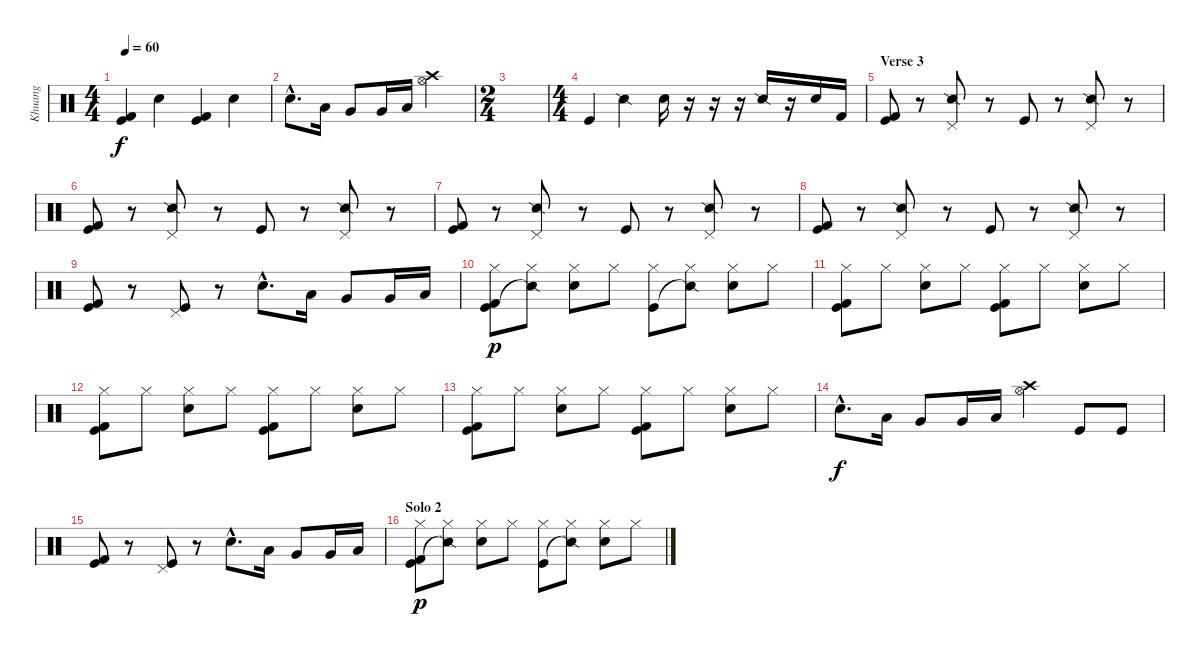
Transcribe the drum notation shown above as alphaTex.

\track ("Khuang" "Khuang") {instrument percussion}
\staff {score}
\articulation defaults
\ts (4 4)
\tempo 60
\clef neutral
\ks c
("Kick (hit)" "Kick (hit) 2").4{dy f} "Electric Snare (hit)".4 ("Kick (hit)" "Kick (hit) 2").4 "Electric Snare (hit)".4 |
"Snare (hit) 2"{hac}.8{d} "Low Tom (hit)".16 "Very Low Tom (hit)".8 "Very Low Tom (hit)".16 "Low Floor Tom (hit)".16 ("Hi-Hat (open)" "Crash high (hit)").2 |
\ts (2 4)
|
\ts (4 4)
"Kick (hit)".4 "Snare (side stick) 2".4 "Snare (hit) 2".16 r.16 r.16 r.16 "Snare (side stick) 2".16 r.16 "Snare (hit) 2".16 "Kick (hit) 2".16 |
\section ("" "Verse 3")
("Kick (hit)" "Kick (hit) 2").8 r.8 ("Snare (side stick) 2" "Pedal Hi-Hat (hit)").8 r.8 "Kick (hit)".8 r.8 ("Snare (side stick) 2" "Pedal Hi-Hat (hit)").8 r.8 |
("Kick (hit)" "Kick (hit) 2").8 r.8 ("Snare (side stick) 2" "Pedal Hi-Hat (hit)").8 r.8 "Kick (hit)".8 r.8 ("Snare (side stick) 2" "Pedal Hi-Hat (hit)").8 r.8 |
("Kick (hit)" "Kick (hit) 2").8 r.8 ("Snare (side stick) 2" "Pedal Hi-Hat (hit)").8 r.8 "Kick (hit)".8 r.8 ("Snare (side stick) 2" "Pedal Hi-Hat (hit)").8 r.8 |
("Kick (hit)" "Kick (hit) 2").8 r.8 ("Snare (side stick) 2" "Pedal Hi-Hat (hit)").8 r.8 "Kick (hit)".8 r.8 ("Snare (side stick) 2" "Pedal Hi-Hat (hit)").8 r.8 |
("Kick (hit)" "Kick (hit) 2").8 r.8 ("Kick (hit)" "Pedal Hi-Hat (hit)").8 r.8 "Snare (hit) 2"{hac}.8{d} "Low Tom (hit)".16 "Very Low Tom (hit)".8 "Very Low Tom (hit)".16 "Low Floor Tom (hit)".16 |
("Kick (hit)" "Kick (hit) 2" "Hi-Hat (closed)").8{dy p volume 12} ("Snare (side stick) 2"{t} "Hi-Hat (closed)").8 ("Electric Snare (hit)" "Hi-Hat (closed)").8 "Hi-Hat (closed)".8 ("Kick (hit)" "Hi-Hat (closed)").8 ("Snare (side stick) 2"{t} "Hi-Hat (closed)").8 ("Electric Snare (hit)" "Hi-Hat (closed)").8 "Hi-Hat (closed)".8 |
("Kick (hit) 2" "Kick (hit)" "Hi-Hat (closed)").8 "Hi-Hat (closed)".8 ("Electric Snare (hit)" "Hi-Hat (closed)").8 "Hi-Hat (closed)".8 ("Kick (hit) 2" "Kick (hit)" "Hi-Hat (closed)").8 "Hi-Hat (closed)".8 ("Electric Snare (hit)" "Hi-Hat (closed)").8 "Hi-Hat (closed)".8 |
("Kick (hit) 2" "Kick (hit)" "Hi-Hat (closed)").8 "Hi-Hat (closed)".8 ("Electric Snare (hit)" "Hi-Hat (closed)").8 "Hi-Hat (closed)".8 ("Kick (hit) 2" "Kick (hit)" "Hi-Hat (closed)").8 "Hi-Hat (closed)".8 ("Electric Snare (hit)" "Hi-Hat (closed)").8 "Hi-Hat (closed)".8 |
("Kick (hit) 2" "Kick (hit)" "Hi-Hat (closed)").8 "Hi-Hat (closed)".8 ("Electric Snare (hit)" "Hi-Hat (closed)").8 "Hi-Hat (closed)".8 ("Kick (hit) 2" "Kick (hit)" "Hi-Hat (closed)").8 "Hi-Hat (closed)".8 ("Electric Snare (hit)" "Hi-Hat (closed)").8 "Hi-Hat (closed)".8 |
"Snare (hit) 2"{hac}.8{d dy f} "Low Tom (hit)".16 "Very Low Tom (hit)".8 "Very Low Tom (hit)".16 "Low Floor Tom (hit)".16 ("Hi-Hat (open)" "Crash high (hit)").4 "Kick (hit)".8 "Kick (hit)".8 |
("Kick (hit)" "Kick (hit) 2").8 r.8 ("Kick (hit)" "Pedal Hi-Hat (hit)").8 r.8 "Snare (hit) 2"{hac}.8{d} "Low Tom (hit)".16 "Very Low Tom (hit)".8 "Very Low Tom (hit)".16 "Low Floor Tom (hit)".16 |
\section ("" "Solo 2")
("Kick (hit)" "Kick (hit) 2" "Hi-Hat (closed)").8{dy p volume 12} ("Snare (side stick) 2"{t} "Hi-Hat (closed)").8 ("Electric Snare (hit)" "Hi-Hat (closed)").8 "Hi-Hat (closed)".8 ("Kick (hit)" "Hi-Hat (closed)").8 ("Snare (side stick) 2"{t} "Hi-Hat (closed)").8 ("Electric Snare (hit)" "Hi-Hat (closed)").8 "Hi-Hat (closed)".8
